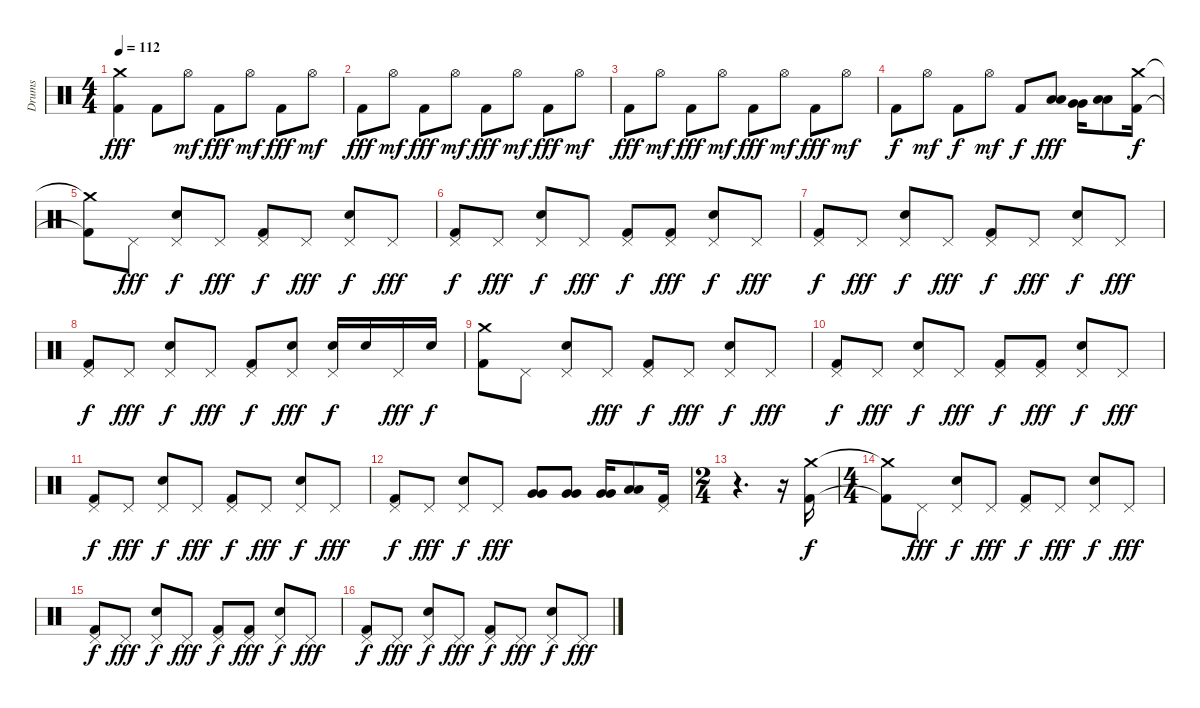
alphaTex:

\track ("Drums" "Drums") {instrument percussion}
\staff {score}
\articulation defaults
\ts (4 4)
\tempo 112
\clef neutral
\ks c
("Kick (hit) 2" "Crash medium (hit)").4{dy fff} "Kick (hit) 2".8 "Hi-Hat (open)".8{dy mf} "Kick (hit) 2".8{dy fff} "Hi-Hat (open)".8{dy mf} "Kick (hit) 2".8{dy fff} "Hi-Hat (open)".8{dy mf} |
"Kick (hit) 2".8{dy fff} "Hi-Hat (open)".8{dy mf} "Kick (hit) 2".8{dy fff} "Hi-Hat (open)".8{dy mf} "Kick (hit) 2".8{dy fff} "Hi-Hat (open)".8{dy mf} "Kick (hit) 2".8{dy fff} "Hi-Hat (open)".8{dy mf} |
"Kick (hit) 2".8{dy fff} "Hi-Hat (open)".8{dy mf} "Kick (hit) 2".8{dy fff} "Hi-Hat (open)".8{dy mf} "Kick (hit) 2".8{dy fff} "Hi-Hat (open)".8{dy mf} "Kick (hit) 2".8{dy fff} "Hi-Hat (open)".8{dy mf} |
"Kick (hit) 2".8{dy f} "Hi-Hat (open)".8{dy mf} "Kick (hit) 2".8{dy f} "Hi-Hat (open)".8{dy mf} "Kick (hit) 2".8{dy f} ("Low Tom (hit)" "Low Tom (hit)").8{dy fff} ("Very Low Tom (hit)" "Very Low Tom (hit)").16 ("Low Floor Tom (hit)" "Low Floor Tom (hit)").8 ("Kick (hit) 2" "Crash medium (hit)").16{dy f} |
("Kick (hit) 2"{t} "Crash medium (hit)"{t}).8 "Pedal Hi-Hat (hit)".8{dy fff} ("Pedal Hi-Hat (hit)" "Snare (hit) 2").8{dy f} "Pedal Hi-Hat (hit)".8{dy fff} ("Kick (hit) 2" "Pedal Hi-Hat (hit)").8{dy f} "Pedal Hi-Hat (hit)".8{dy fff} ("Pedal Hi-Hat (hit)" "Snare (hit) 2").8{dy f} "Pedal Hi-Hat (hit)".8{dy fff} |
("Kick (hit) 2" "Pedal Hi-Hat (hit)").8{dy f} "Pedal Hi-Hat (hit)".8{dy fff} ("Pedal Hi-Hat (hit)" "Snare (hit) 2").8{dy f} "Pedal Hi-Hat (hit)".8{dy fff} ("Kick (hit) 2" "Pedal Hi-Hat (hit)").8{dy f} ("Kick (hit) 2" "Pedal Hi-Hat (hit)").8{dy fff} ("Pedal Hi-Hat (hit)" "Snare (hit) 2").8{dy f} "Pedal Hi-Hat (hit)".8{dy fff} |
("Kick (hit) 2" "Pedal Hi-Hat (hit)").8{dy f} "Pedal Hi-Hat (hit)".8{dy fff} ("Pedal Hi-Hat (hit)" "Snare (hit) 2").8{dy f} "Pedal Hi-Hat (hit)".8{dy fff} ("Kick (hit) 2" "Pedal Hi-Hat (hit)").8{dy f} "Pedal Hi-Hat (hit)".8{dy fff} ("Pedal Hi-Hat (hit)" "Snare (hit) 2").8{dy f} "Pedal Hi-Hat (hit)".8{dy fff} |
("Kick (hit) 2" "Pedal Hi-Hat (hit)").8{dy f} "Pedal Hi-Hat (hit)".8{dy fff} ("Pedal Hi-Hat (hit)" "Snare (hit) 2").8{dy f} "Pedal Hi-Hat (hit)".8{dy fff} ("Kick (hit) 2" "Pedal Hi-Hat (hit)").8{dy f} ("Pedal Hi-Hat (hit)" "Snare (hit) 2").8{dy fff} ("Pedal Hi-Hat (hit)" "Snare (hit) 2").16{dy f} "Snare (hit) 2".16 "Pedal Hi-Hat (hit)".16{dy fff} "Snare (hit) 2".16{dy f} |
("Kick (hit) 2" "Crash medium (hit)").8 "Pedal Hi-Hat (hit)".8 ("Pedal Hi-Hat (hit)" "Snare (hit) 2").8 "Pedal Hi-Hat (hit)".8{dy fff} ("Kick (hit) 2" "Pedal Hi-Hat (hit)").8{dy f} "Pedal Hi-Hat (hit)".8{dy fff} ("Pedal Hi-Hat (hit)" "Snare (hit) 2").8{dy f} "Pedal Hi-Hat (hit)".8{dy fff} |
("Kick (hit) 2" "Pedal Hi-Hat (hit)").8{dy f} "Pedal Hi-Hat (hit)".8{dy fff} ("Pedal Hi-Hat (hit)" "Snare (hit) 2").8{dy f} "Pedal Hi-Hat (hit)".8{dy fff} ("Kick (hit) 2" "Pedal Hi-Hat (hit)").8{dy f} ("Kick (hit) 2" "Pedal Hi-Hat (hit)").8{dy fff} ("Pedal Hi-Hat (hit)" "Snare (hit) 2").8{dy f} "Pedal Hi-Hat (hit)".8{dy fff} |
("Kick (hit) 2" "Pedal Hi-Hat (hit)").8{dy f} "Pedal Hi-Hat (hit)".8{dy fff} ("Pedal Hi-Hat (hit)" "Snare (hit) 2").8{dy f} "Pedal Hi-Hat (hit)".8{dy fff} ("Kick (hit) 2" "Pedal Hi-Hat (hit)").8{dy f} "Pedal Hi-Hat (hit)".8{dy fff} ("Pedal Hi-Hat (hit)" "Snare (hit) 2").8{dy f} "Pedal Hi-Hat (hit)".8{dy fff} |
("Kick (hit) 2" "Pedal Hi-Hat (hit)").8{dy f} "Pedal Hi-Hat (hit)".8{dy fff} ("Pedal Hi-Hat (hit)" "Snare (hit) 2").8{dy f} "Pedal Hi-Hat (hit)".8{dy fff} ("Very Low Tom (hit)" "Very Low Tom (hit)").8 ("Very Low Tom (hit)" "Very Low Tom (hit)").8 ("Very Low Tom (hit)" "Very Low Tom (hit)").16 ("Low Floor Tom (hit)" "Low Floor Tom (hit)").8 ("Kick (hit) 2" "Pedal Hi-Hat (hit)").16 |
\ts (2 4)
r.4{d} r.16 ("Kick (hit) 2" "Crash medium (hit)").16{dy f} |
\ts (4 4)
("Kick (hit) 2"{t} "Crash medium (hit)"{t}).8 "Pedal Hi-Hat (hit)".8{dy fff} ("Pedal Hi-Hat (hit)" "Snare (hit) 2").8{dy f} "Pedal Hi-Hat (hit)".8{dy fff} ("Kick (hit) 2" "Pedal Hi-Hat (hit)").8{dy f} "Pedal Hi-Hat (hit)".8{dy fff} ("Pedal Hi-Hat (hit)" "Snare (hit) 2").8{dy f} "Pedal Hi-Hat (hit)".8{dy fff} |
("Kick (hit) 2" "Pedal Hi-Hat (hit)").8{dy f} "Pedal Hi-Hat (hit)".8{dy fff} ("Pedal Hi-Hat (hit)" "Snare (hit) 2").8{dy f} "Pedal Hi-Hat (hit)".8{dy fff} ("Kick (hit) 2" "Pedal Hi-Hat (hit)").8{dy f} ("Kick (hit) 2" "Pedal Hi-Hat (hit)").8{dy fff} ("Pedal Hi-Hat (hit)" "Snare (hit) 2").8{dy f} "Pedal Hi-Hat (hit)".8{dy fff} |
("Kick (hit) 2" "Pedal Hi-Hat (hit)").8{dy f} "Pedal Hi-Hat (hit)".8{dy fff} ("Pedal Hi-Hat (hit)" "Snare (hit) 2").8{dy f} "Pedal Hi-Hat (hit)".8{dy fff} ("Kick (hit) 2" "Pedal Hi-Hat (hit)").8{dy f} "Pedal Hi-Hat (hit)".8{dy fff} ("Pedal Hi-Hat (hit)" "Snare (hit) 2").8{dy f} "Pedal Hi-Hat (hit)".8{dy fff}
